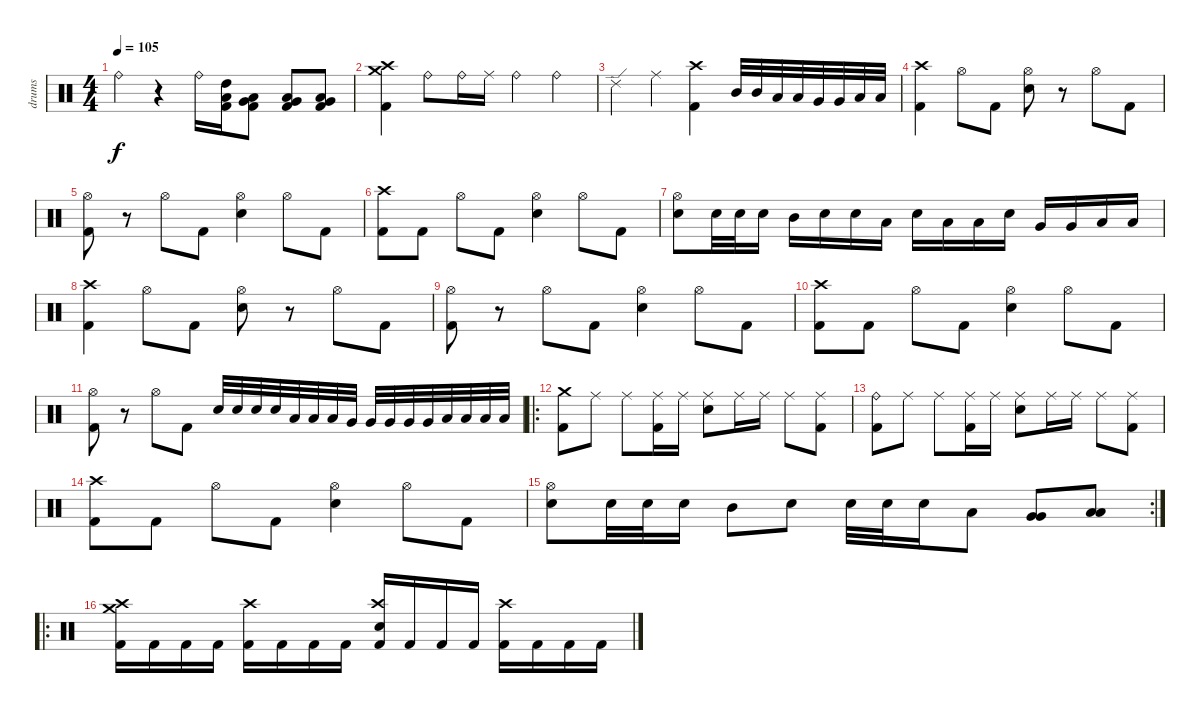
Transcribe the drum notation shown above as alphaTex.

\track ("drums" "drums") {instrument percussion}
\staff {score}
\articulation defaults
\ts (4 4)
\tempo 105
\clef neutral
\ks c "Ride (bell)".4{dy f}
r.4 "Ride (bell)".16 ("High Tom (hit)" "Low Tom (hit)" "Kick (hit) 2").16 ("Low Tom (hit)" "Very Low Tom (hit)" "Kick (hit) 2").8 ("Low Floor Tom (hit)" "Very Low Tom (hit)" "Kick (hit) 2").8 ("Low Floor Tom (hit)" "Very Low Tom (hit)" "Kick (hit) 2").8 |
("Crash medium (hit)" "Crash high (hit)" "Kick (hit) 2").4 "Ride (bell)".8 "Ride (bell)".16 "Ride (middle)".16 "Ride (bell)".4 "Ride (bell)".4 |
"Ride (edge) 2".4 "Ride (middle)".4 ("Crash high (hit)" "Kick (hit) 2").4 "Mid Tom (hit)".32 "Mid Tom (hit)".32 "Low Tom (hit)".32 "Low Tom (hit)".32 "Very Low Tom (hit)".32 "Very Low Tom (hit)".32 "Low Floor Tom (hit)".32 "Low Floor Tom (hit)".32 |
("Crash high (hit)" "Kick (hit) 2").4 "Hi-Hat (open)".8 "Kick (hit) 2".8 ("Hi-Hat (open)" "Snare (hit) 2").8 r.8 "Hi-Hat (open)".8 "Kick (hit) 2".8 |
("Hi-Hat (open)" "Kick (hit) 2").8 r.8 "Hi-Hat (open)".8 "Kick (hit) 2".8 ("Hi-Hat (open)" "Snare (hit) 2").4 "Hi-Hat (open)".8 "Kick (hit) 2".8 |
("Crash high (hit)" "Kick (hit) 2").8 "Kick (hit) 2".8 "Hi-Hat (open)".8 "Kick (hit) 2".8 ("Hi-Hat (open)" "Snare (hit) 2").4 "Hi-Hat (open)".8 "Kick (hit) 2".8 |
("Hi-Hat (open)" "Snare (hit) 2").8 "Snare (hit) 2".32 "Snare (hit) 2".32 "Snare (hit) 2".16 "Mid Tom (hit)".16 "Snare (hit) 2".16 "Snare (hit) 2".16 "Low Tom (hit)".16 "Snare (hit) 2".16 "Low Tom (hit)".16 "Low Tom (hit)".16 "Snare (hit) 2".16 "Very Low Tom (hit)".16 "Very Low Tom (hit)".16 "Low Floor Tom (hit)".16 "Low Floor Tom (hit)".16 |
("Crash high (hit)" "Kick (hit) 2").4 "Hi-Hat (open)".8 "Kick (hit) 2".8 ("Hi-Hat (open)" "Snare (hit) 2").8 r.8 "Hi-Hat (open)".8 "Kick (hit) 2".8 |
("Hi-Hat (open)" "Kick (hit) 2").8 r.8 "Hi-Hat (open)".8 "Kick (hit) 2".8 ("Hi-Hat (open)" "Snare (hit) 2").4 "Hi-Hat (open)".8 "Kick (hit) 2".8 |
("Crash high (hit)" "Kick (hit) 2").8 "Kick (hit) 2".8 "Hi-Hat (open)".8 "Kick (hit) 2".8 ("Hi-Hat (open)" "Snare (hit) 2").4 "Hi-Hat (open)".8 "Kick (hit) 2".8 |
("Hi-Hat (open)" "Kick (hit) 2").8 r.8 "Hi-Hat (open)".8 "Kick (hit) 2".8 "Snare (hit) 2".32 "Snare (hit) 2".32 "Snare (hit) 2".32 "Snare (hit) 2".32 "Low Tom (hit)".32 "Low Tom (hit)".32 "Low Tom (hit)".32 "Very Low Tom (hit)".32 "Very Low Tom (hit)".32 "Very Low Tom (hit)".32 "Very Low Tom (hit)".32 "Very Low Tom (hit)".32 "Low Floor Tom (hit)".32 "Low Floor Tom (hit)".32 "Low Floor Tom (hit)".32 "Low Floor Tom (hit)".32 |
\ro
("Crash medium (hit)" "Kick (hit) 2").8 "Ride (middle)".8 "Ride (middle)".8 ("Ride (middle)" "Kick (hit) 2").16 "Ride (middle)".16 ("Ride (middle)" "Snare (hit) 2").8 "Ride (middle)".16 "Ride (middle)".16 "Ride (middle)".8 ("Ride (middle)" "Kick (hit) 2").8 |
("Ride (bell)" "Kick (hit) 2").8 "Ride (middle)".8 "Ride (middle)".8 ("Ride (middle)" "Kick (hit) 2").16 "Ride (middle)".16 ("Ride (middle)" "Snare (hit) 2").8 "Ride (middle)".16 "Ride (middle)".16 "Ride (middle)".8 ("Ride (middle)" "Kick (hit) 2").8 |
("Crash high (hit)" "Kick (hit) 2").8 "Kick (hit) 2".8 "Hi-Hat (open)".8 "Kick (hit) 2".8 ("Hi-Hat (open)" "Snare (hit) 2").4 "Hi-Hat (open)".8 "Kick (hit) 2".8 |
\rc 2
("Hi-Hat (open)" "Snare (hit) 2").8 "Snare (hit) 2".32 "Snare (hit) 2".32 "Snare (hit) 2".16 "Mid Tom (hit)".8 "Snare (hit) 2".8 "Snare (hit) 2".32 "Snare (hit) 2".32 "Snare (hit) 2".16 "Low Tom (hit)".8 ("Very Low Tom (hit)" "Very Low Tom (hit)").8 ("Low Floor Tom (hit)" "Low Floor Tom (hit)").8 |
\ro
("Crash medium (hit)" "Crash high (hit)" "Kick (hit) 2").16 "Kick (hit) 2".16 "Kick (hit) 2".16 "Kick (hit) 2".16 ("Crash high (hit)" "Kick (hit) 2").16 "Kick (hit) 2".16 "Kick (hit) 2".16 "Kick (hit) 2".16 ("Crash high (hit)" "Snare (hit) 2" "Kick (hit) 2").16 "Kick (hit) 2".16 "Kick (hit) 2".16 "Kick (hit) 2".16 ("Crash high (hit)" "Kick (hit) 2").16 "Kick (hit) 2".16 "Kick (hit) 2".16 "Kick (hit) 2".16
